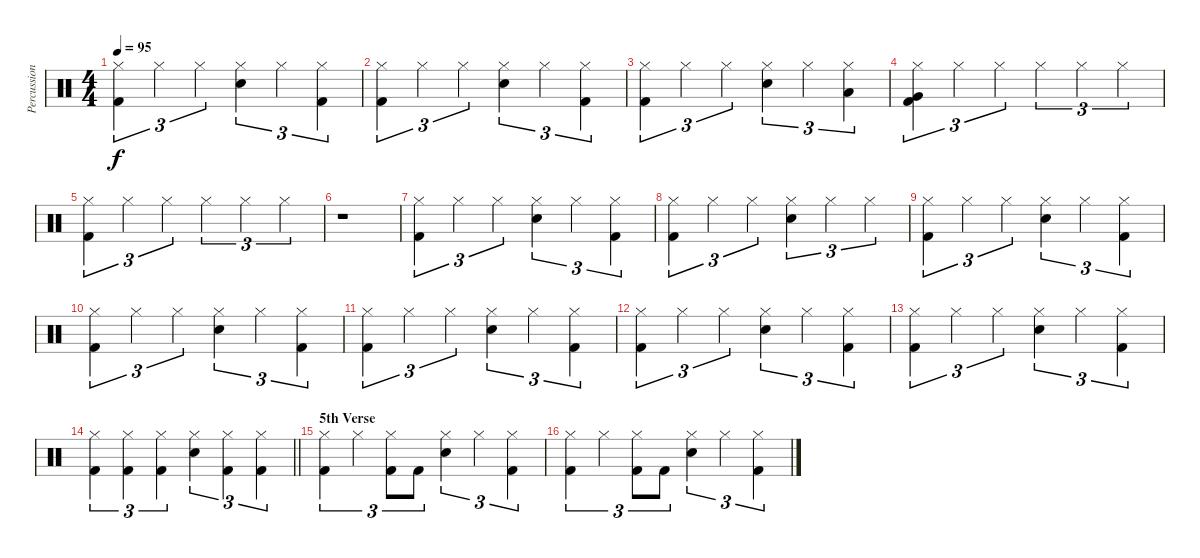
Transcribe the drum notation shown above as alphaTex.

\track ("Percussion" "Percussion") {instrument percussion}
\staff {score}
\articulation defaults
\ts (4 4)
\tempo 95
\clef neutral
\ks c
("Hi-Hat (closed)" "Kick (hit) 2").4{tu (3 2) dy f} "Hi-Hat (closed)".4{tu (3 2)} "Hi-Hat (closed)".4{tu (3 2)} ("Hi-Hat (closed)" "Electric Snare (hit)").4{tu (3 2)} "Hi-Hat (closed)".4{tu (3 2)} ("Hi-Hat (closed)" "Kick (hit) 2").4{tu (3 2)} |
("Hi-Hat (closed)" "Kick (hit) 2").4{tu (3 2)} "Hi-Hat (closed)".4{tu (3 2)} "Hi-Hat (closed)".4{tu (3 2)} ("Hi-Hat (closed)" "Electric Snare (hit)").4{tu (3 2)} "Hi-Hat (closed)".4{tu (3 2)} ("Hi-Hat (closed)" "Kick (hit) 2").4{tu (3 2)} |
("Hi-Hat (closed)" "Kick (hit) 2").4{tu (3 2)} "Hi-Hat (closed)".4{tu (3 2)} "Hi-Hat (closed)".4{tu (3 2)} ("Hi-Hat (closed)" "Electric Snare (hit)").4{tu (3 2)} "Hi-Hat (closed)".4{tu (3 2)} ("Hi-Hat (closed)" "Low Tom (hit)").4{tu (3 2)} |
("Hi-Hat (closed)" "Very Low Tom (hit)" "Kick (hit) 2").4{tu (3 2)} "Hi-Hat (closed)".4{tu (3 2)} "Hi-Hat (closed)".4{tu (3 2)} "Hi-Hat (closed)".4{tu (3 2)} "Hi-Hat (closed)".4{tu (3 2)} "Hi-Hat (closed)".4{tu (3 2)} |
("Hi-Hat (closed)" "Kick (hit) 2").4{tu (3 2)} "Hi-Hat (closed)".4{tu (3 2)} "Hi-Hat (closed)".4{tu (3 2)} "Hi-Hat (closed)".4{tu (3 2)} "Hi-Hat (closed)".4{tu (3 2)} "Hi-Hat (closed)".4{tu (3 2)} |
r.1 |
("Hi-Hat (closed)" "Kick (hit) 2").4{tu (3 2)} "Hi-Hat (closed)".4{tu (3 2)} "Hi-Hat (closed)".4{tu (3 2)} ("Hi-Hat (closed)" "Electric Snare (hit)").4{tu (3 2)} "Hi-Hat (closed)".4{tu (3 2)} ("Hi-Hat (closed)" "Kick (hit) 2").4{tu (3 2)} |
("Hi-Hat (closed)" "Kick (hit) 2").4{tu (3 2)} "Hi-Hat (closed)".4{tu (3 2)} "Hi-Hat (closed)".4{tu (3 2)} ("Hi-Hat (closed)" "Electric Snare (hit)").4{tu (3 2)} "Hi-Hat (closed)".4{tu (3 2)} "Hi-Hat (closed)".4{tu (3 2)} |
("Hi-Hat (closed)" "Kick (hit) 2").4{tu (3 2)} "Hi-Hat (closed)".4{tu (3 2)} "Hi-Hat (closed)".4{tu (3 2)} ("Hi-Hat (closed)" "Electric Snare (hit)").4{tu (3 2)} "Hi-Hat (closed)".4{tu (3 2)} ("Hi-Hat (closed)" "Kick (hit) 2").4{tu (3 2)} |
("Hi-Hat (closed)" "Kick (hit) 2").4{tu (3 2)} "Hi-Hat (closed)".4{tu (3 2)} "Hi-Hat (closed)".4{tu (3 2)} ("Hi-Hat (closed)" "Electric Snare (hit)").4{tu (3 2)} "Hi-Hat (closed)".4{tu (3 2)} ("Hi-Hat (closed)" "Kick (hit) 2").4{tu (3 2)} |
("Hi-Hat (closed)" "Kick (hit) 2").4{tu (3 2)} "Hi-Hat (closed)".4{tu (3 2)} "Hi-Hat (closed)".4{tu (3 2)} ("Hi-Hat (closed)" "Electric Snare (hit)").4{tu (3 2)} "Hi-Hat (closed)".4{tu (3 2)} ("Hi-Hat (closed)" "Kick (hit) 2").4{tu (3 2)} |
("Hi-Hat (closed)" "Kick (hit) 2").4{tu (3 2)} "Hi-Hat (closed)".4{tu (3 2)} "Hi-Hat (closed)".4{tu (3 2)} ("Hi-Hat (closed)" "Electric Snare (hit)").4{tu (3 2)} "Hi-Hat (closed)".4{tu (3 2)} ("Hi-Hat (closed)" "Kick (hit) 2").4{tu (3 2)} |
("Hi-Hat (closed)" "Kick (hit) 2").4{tu (3 2)} "Hi-Hat (closed)".4{tu (3 2)} "Hi-Hat (closed)".4{tu (3 2)} ("Hi-Hat (closed)" "Electric Snare (hit)").4{tu (3 2)} "Hi-Hat (closed)".4{tu (3 2)} ("Hi-Hat (closed)" "Kick (hit) 2").4{tu (3 2)} |
\barLineRight lightlight
("Hi-Hat (closed)" "Kick (hit) 2").4{tu (3 2)} ("Hi-Hat (closed)" "Kick (hit) 2").4{tu (3 2)} ("Hi-Hat (closed)" "Kick (hit) 2").4{tu (3 2)} ("Hi-Hat (closed)" "Electric Snare (hit)").4{tu (3 2)} ("Hi-Hat (closed)" "Kick (hit) 2").4{tu (3 2)} ("Hi-Hat (closed)" "Kick (hit) 2").4{tu (3 2)} |
\section ("" "5th Verse")
("Hi-Hat (closed)" "Kick (hit) 2").4{tu (3 2)} "Hi-Hat (closed)".4{tu (3 2)} ("Hi-Hat (closed)" "Kick (hit) 2").8{tu (3 2)} "Kick (hit) 2".8{tu (3 2)} ("Hi-Hat (closed)" "Electric Snare (hit)").4{tu (3 2)} "Hi-Hat (closed)".4{tu (3 2)} ("Hi-Hat (closed)" "Kick (hit) 2").4{tu (3 2)} |
("Hi-Hat (closed)" "Kick (hit) 2").4{tu (3 2)} "Hi-Hat (closed)".4{tu (3 2)} ("Hi-Hat (closed)" "Kick (hit) 2").8{tu (3 2)} "Kick (hit) 2".8{tu (3 2)} ("Hi-Hat (closed)" "Electric Snare (hit)").4{tu (3 2)} "Hi-Hat (closed)".4{tu (3 2)} ("Hi-Hat (closed)" "Kick (hit) 2").4{tu (3 2)}
